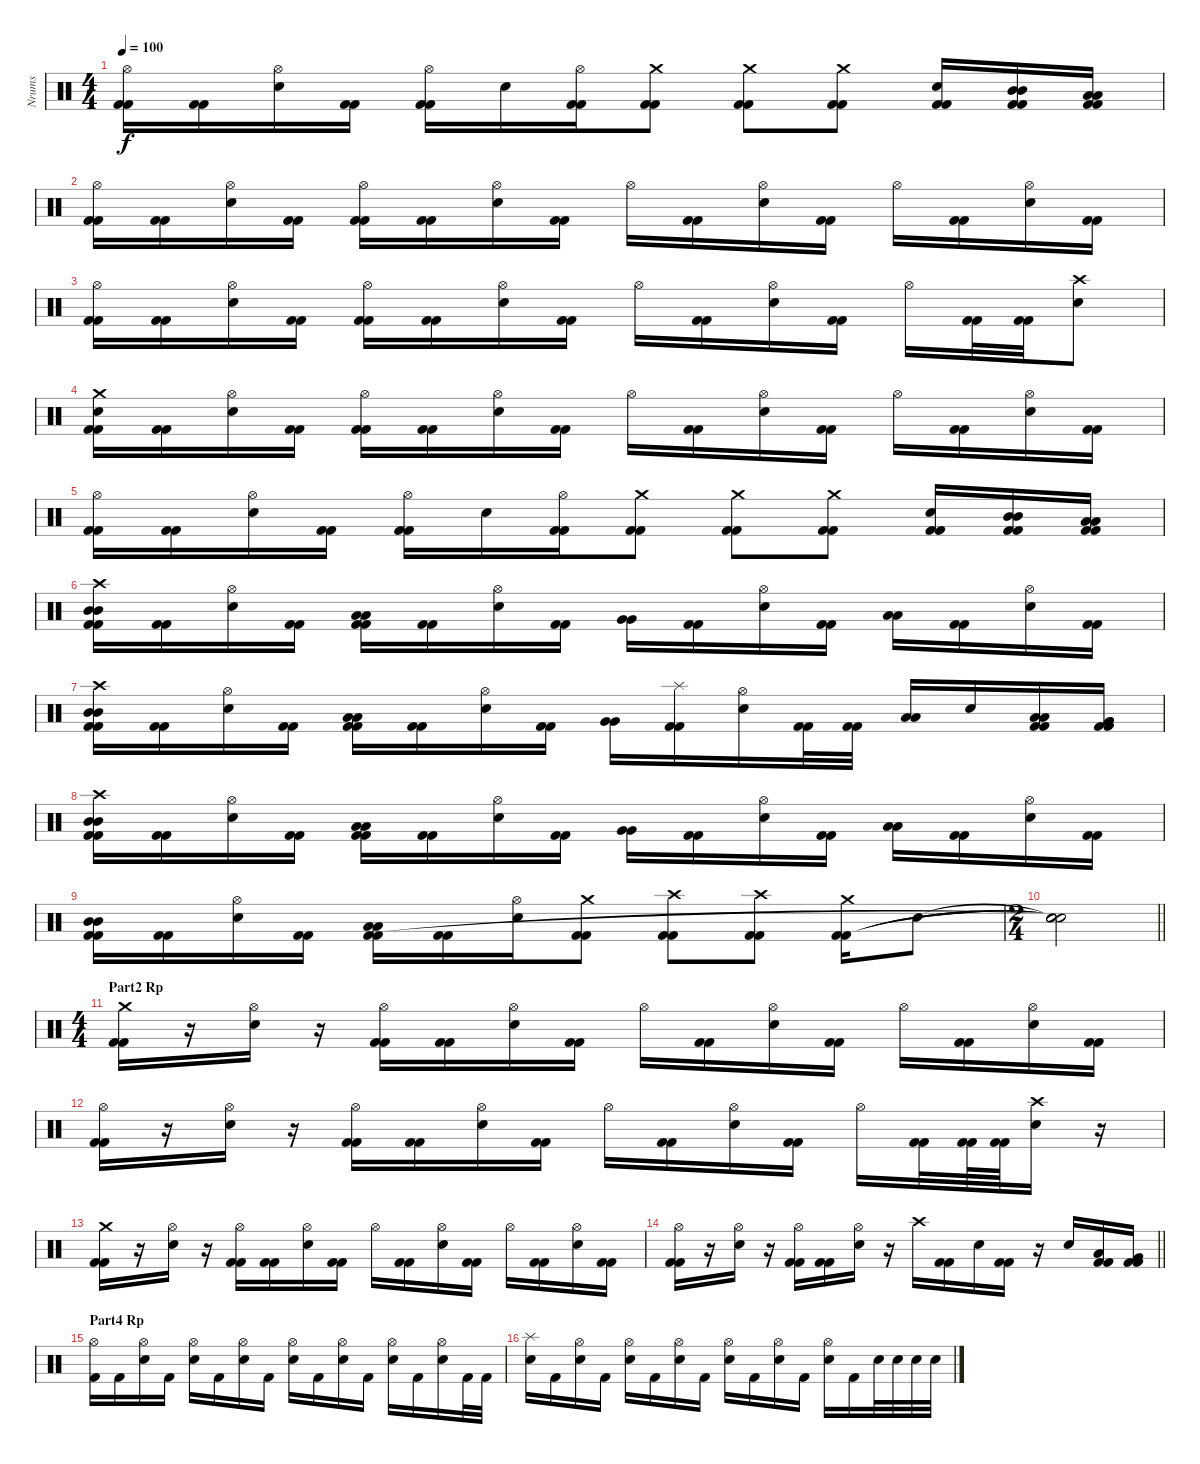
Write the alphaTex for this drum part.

\track ("Nrums" "Nrums") {instrument percussion}
\staff {score}
\articulation defaults
\ts (4 4)
\tempo 100
\clef neutral
\ks c
("Hi-Hat (open)" "Kick (hit) 2" "Kick (hit) 2").16{dy f} ("Kick (hit) 2" "Kick (hit) 2").16 ("Hi-Hat (open)" "Electric Snare (hit)").16 ("Kick (hit) 2" "Kick (hit) 2").16 ("Hi-Hat (open)" "Kick (hit) 2" "Kick (hit) 2").16 "Electric Snare (hit)".16 ("Hi-Hat (open)" "Kick (hit) 2" "Kick (hit) 2").16 ("Crash medium (hit)" "Kick (hit) 2" "Kick (hit) 2").8 ("Crash medium (hit)" "Kick (hit) 2" "Kick (hit) 2").8 ("Crash medium (hit)" "Kick (hit) 2" "Kick (hit) 2").8 ("Electric Snare (hit)" "Kick (hit) 2" "Kick (hit) 2").16 ("Mid Tom (hit)" "Mid Tom (hit)" "Kick (hit) 2" "Kick (hit) 2").16 ("Low Tom (hit)" "Low Tom (hit)" "Kick (hit) 2" "Kick (hit) 2").16 |
("Hi-Hat (open)" "Kick (hit) 2" "Kick (hit) 2").16 ("Kick (hit) 2" "Kick (hit) 2").16 ("Hi-Hat (open)" "Electric Snare (hit)").16 ("Kick (hit) 2" "Kick (hit) 2").16 ("Hi-Hat (open)" "Kick (hit) 2" "Kick (hit) 2").16 ("Kick (hit) 2" "Kick (hit) 2").16 ("Hi-Hat (open)" "Electric Snare (hit)").16 ("Kick (hit) 2" "Kick (hit) 2").16 "Hi-Hat (open)".16 ("Kick (hit) 2" "Kick (hit) 2").16 ("Hi-Hat (open)" "Electric Snare (hit)").16 ("Kick (hit) 2" "Kick (hit) 2").16 "Hi-Hat (open)".16 ("Kick (hit) 2" "Kick (hit) 2").16 ("Hi-Hat (open)" "Electric Snare (hit)").16 ("Kick (hit) 2" "Kick (hit) 2").16 |
("Hi-Hat (open)" "Kick (hit) 2" "Kick (hit) 2").16 ("Kick (hit) 2" "Kick (hit) 2").16 ("Hi-Hat (open)" "Electric Snare (hit)").16 ("Kick (hit) 2" "Kick (hit) 2").16 ("Hi-Hat (open)" "Kick (hit) 2" "Kick (hit) 2").16 ("Kick (hit) 2" "Kick (hit) 2").16 ("Hi-Hat (open)" "Electric Snare (hit)").16 ("Kick (hit) 2" "Kick (hit) 2").16 "Hi-Hat (open)".16 ("Kick (hit) 2" "Kick (hit) 2").16 ("Hi-Hat (open)" "Electric Snare (hit)").16 ("Kick (hit) 2" "Kick (hit) 2").16 "Hi-Hat (open)".16 ("Kick (hit) 2" "Kick (hit) 2").32 ("Kick (hit) 2" "Kick (hit) 2").32 ("Crash high (hit)" "Electric Snare (hit)").8 |
("Crash medium (hit)" "Electric Snare (hit)" "Kick (hit) 2" "Kick (hit) 2").16 ("Kick (hit) 2" "Kick (hit) 2").16 ("Hi-Hat (open)" "Electric Snare (hit)").16 ("Kick (hit) 2" "Kick (hit) 2").16 ("Hi-Hat (open)" "Kick (hit) 2" "Kick (hit) 2").16 ("Kick (hit) 2" "Kick (hit) 2").16 ("Hi-Hat (open)" "Electric Snare (hit)").16 ("Kick (hit) 2" "Kick (hit) 2").16 "Hi-Hat (open)".16 ("Kick (hit) 2" "Kick (hit) 2").16 ("Hi-Hat (open)" "Electric Snare (hit)").16 ("Kick (hit) 2" "Kick (hit) 2").16 "Hi-Hat (open)".16 ("Kick (hit) 2" "Kick (hit) 2").16 ("Hi-Hat (open)" "Electric Snare (hit)").16 ("Kick (hit) 2" "Kick (hit) 2").16 |
("Hi-Hat (open)" "Kick (hit) 2" "Kick (hit) 2").16 ("Kick (hit) 2" "Kick (hit) 2").16 ("Hi-Hat (open)" "Electric Snare (hit)").16 ("Kick (hit) 2" "Kick (hit) 2").16 ("Hi-Hat (open)" "Kick (hit) 2" "Kick (hit) 2").16 "Electric Snare (hit)".16 ("Hi-Hat (open)" "Kick (hit) 2" "Kick (hit) 2").16 ("Crash medium (hit)" "Kick (hit) 2" "Kick (hit) 2").8 ("Crash medium (hit)" "Kick (hit) 2" "Kick (hit) 2").8 ("Crash medium (hit)" "Kick (hit) 2" "Kick (hit) 2").8 ("Electric Snare (hit)" "Kick (hit) 2" "Kick (hit) 2").16 ("Mid Tom (hit)" "Mid Tom (hit)" "Kick (hit) 2" "Kick (hit) 2").16 ("Low Tom (hit)" "Low Tom (hit)" "Kick (hit) 2" "Kick (hit) 2").16 |
("Crash high (hit)" "Mid Tom (hit)" "Mid Tom (hit)" "Kick (hit) 2" "Kick (hit) 2").16 ("Kick (hit) 2" "Kick (hit) 2").16 ("Hi-Hat (open)" "Electric Snare (hit)").16 ("Kick (hit) 2" "Kick (hit) 2").16 ("Low Tom (hit)" "Low Tom (hit)" "Kick (hit) 2" "Kick (hit) 2").16 ("Kick (hit) 2" "Kick (hit) 2").16 ("Hi-Hat (open)" "Electric Snare (hit)").16 ("Kick (hit) 2" "Kick (hit) 2").16 ("Very Low Tom (hit)" "Very Low Tom (hit)").16 ("Kick (hit) 2" "Kick (hit) 2").16 ("Hi-Hat (open)" "Electric Snare (hit)").16 ("Kick (hit) 2" "Kick (hit) 2").16 ("Low Floor Tom (hit)" "Low Floor Tom (hit)").16 ("Kick (hit) 2" "Kick (hit) 2").16 ("Hi-Hat (open)" "Electric Snare (hit)").16 ("Kick (hit) 2" "Kick (hit) 2").16 |
("Crash high (hit)" "Mid Tom (hit)" "Mid Tom (hit)" "Kick (hit) 2" "Kick (hit) 2").16 ("Kick (hit) 2" "Kick (hit) 2").16 ("Hi-Hat (open)" "Electric Snare (hit)").16 ("Kick (hit) 2" "Kick (hit) 2").16 ("Low Tom (hit)" "Low Tom (hit)" "Kick (hit) 2" "Kick (hit) 2").16 ("Kick (hit) 2" "Kick (hit) 2").16 ("Hi-Hat (open)" "Electric Snare (hit)").16 ("Kick (hit) 2" "Kick (hit) 2").16 ("Very Low Tom (hit)" "Very Low Tom (hit)").16 ("Splash (hit)" "Kick (hit) 2" "Kick (hit) 2").16 ("Hi-Hat (open)" "Electric Snare (hit)").16 ("Kick (hit) 2" "Kick (hit) 2").32 ("Kick (hit) 2" "Kick (hit) 2").32 ("Low Floor Tom (hit)" "Low Floor Tom (hit)").16 "Electric Snare (hit)".16 ("Low Tom (hit)" "Low Tom (hit)" "Kick (hit) 2" "Kick (hit) 2").16 ("Very Low Tom (hit)" "Very Low Tom (hit)" "Kick (hit) 2" "Kick (hit) 2").16 |
("Crash high (hit)" "Mid Tom (hit)" "Mid Tom (hit)" "Kick (hit) 2" "Kick (hit) 2").16 ("Kick (hit) 2" "Kick (hit) 2").16 ("Hi-Hat (open)" "Electric Snare (hit)").16 ("Kick (hit) 2" "Kick (hit) 2").16 ("Low Tom (hit)" "Low Tom (hit)" "Kick (hit) 2" "Kick (hit) 2").16 ("Kick (hit) 2" "Kick (hit) 2").16 ("Hi-Hat (open)" "Electric Snare (hit)").16 ("Kick (hit) 2" "Kick (hit) 2").16 ("Very Low Tom (hit)" "Very Low Tom (hit)").16 ("Kick (hit) 2" "Kick (hit) 2").16 ("Hi-Hat (open)" "Electric Snare (hit)").16 ("Kick (hit) 2" "Kick (hit) 2").16 ("Low Floor Tom (hit)" "Low Floor Tom (hit)").16 ("Kick (hit) 2" "Kick (hit) 2").16 ("Hi-Hat (open)" "Electric Snare (hit)").16 ("Kick (hit) 2" "Kick (hit) 2").16 |
("Mid Tom (hit)" "Mid Tom (hit)" "Kick (hit) 2" "Kick (hit) 2").16 ("Kick (hit) 2" "Kick (hit) 2").16 ("Hi-Hat (open)" "Electric Snare (hit)").16 ("Kick (hit) 2" "Kick (hit) 2").16 ("Low Tom (hit)" "Low Tom (hit)" "Kick (hit) 2" "Kick (hit) 2").16 ("Kick (hit) 2" "Kick (hit) 2").16 ("Hi-Hat (open)" "Electric Snare (hit)").16 ("Crash medium (hit)" "Kick (hit) 2" "Kick (hit) 2").8 ("Crash high (hit)" "Kick (hit) 2" "Kick (hit) 2").8 ("Crash high (hit)" "Kick (hit) 2" "Kick (hit) 2").8 ("Crash medium (hit)" "Kick (hit) 2" "Kick (hit) 2").16 "Electric Snare (hit)".8 |
\ts (2 4)
\barLineRight lightlight
("Snare (hit)"{t} "Snare (hit)"{t} "Snare (hit)"{t} "Snare (hit)"{t}).2 |
\ts (4 4)
\section ("" "Part2 Rp")
("Crash medium (hit)" "Kick (hit) 2" "Kick (hit) 2").16 r.16 ("Hi-Hat (open)" "Electric Snare (hit)").16 r.16 ("Hi-Hat (open)" "Kick (hit) 2" "Kick (hit) 2").16 ("Kick (hit) 2" "Kick (hit) 2").16 ("Hi-Hat (open)" "Electric Snare (hit)").16 ("Kick (hit) 2" "Kick (hit) 2").16 "Hi-Hat (open)".16 ("Kick (hit) 2" "Kick (hit) 2").16 ("Hi-Hat (open)" "Electric Snare (hit)").16 ("Kick (hit) 2" "Kick (hit) 2").16 "Hi-Hat (open)".16 ("Kick (hit) 2" "Kick (hit) 2").16 ("Hi-Hat (open)" "Electric Snare (hit)").16 ("Kick (hit) 2" "Kick (hit) 2").16 |
("Hi-Hat (open)" "Kick (hit) 2" "Kick (hit) 2").16 r.16 ("Hi-Hat (open)" "Electric Snare (hit)").16 r.16 ("Hi-Hat (open)" "Kick (hit) 2" "Kick (hit) 2").16 ("Kick (hit) 2" "Kick (hit) 2").16 ("Hi-Hat (open)" "Electric Snare (hit)").16 ("Kick (hit) 2" "Kick (hit) 2").16 "Hi-Hat (open)".16 ("Kick (hit) 2" "Kick (hit) 2").16 ("Hi-Hat (open)" "Electric Snare (hit)").16 ("Kick (hit) 2" "Kick (hit) 2").16 "Hi-Hat (open)".16 ("Kick (hit) 2" "Kick (hit) 2").32 ("Kick (hit) 2" "Kick (hit) 2").64 ("Kick (hit) 2" "Kick (hit) 2").64 ("Crash high (hit)" "Electric Snare (hit)").16 r.16 |
("Crash medium (hit)" "Kick (hit) 2" "Kick (hit) 2").16 r.16 ("Hi-Hat (open)" "Electric Snare (hit)").16 r.16 ("Hi-Hat (open)" "Kick (hit) 2" "Kick (hit) 2").16 ("Kick (hit) 2" "Kick (hit) 2").16 ("Hi-Hat (open)" "Electric Snare (hit)").16 ("Kick (hit) 2" "Kick (hit) 2").16 "Hi-Hat (open)".16 ("Kick (hit) 2" "Kick (hit) 2").16 ("Hi-Hat (open)" "Electric Snare (hit)").16 ("Kick (hit) 2" "Kick (hit) 2").16 "Hi-Hat (open)".16 ("Kick (hit) 2" "Kick (hit) 2").16 ("Hi-Hat (open)" "Electric Snare (hit)").16 ("Kick (hit) 2" "Kick (hit) 2").16 |
\barLineRight lightlight
("Hi-Hat (open)" "Kick (hit) 2" "Kick (hit) 2").16 r.16 ("Hi-Hat (open)" "Electric Snare (hit)").16 r.16 ("Hi-Hat (open)" "Kick (hit) 2" "Kick (hit) 2").16 ("Kick (hit) 2" "Kick (hit) 2").16 ("Hi-Hat (open)" "Electric Snare (hit)").16 r.16 "Crash high (hit)".16 ("Kick (hit) 2" "Kick (hit) 2").16 "Electric Snare (hit)".16 ("Kick (hit) 2" "Kick (hit) 2").16 r.16 "Electric Snare (hit)".16 ("Low Tom (hit)" "Kick (hit) 2" "Kick (hit) 2").16 ("Very Low Tom (hit)" "Kick (hit) 2" "Kick (hit) 2").16 |
\section ("" "Part4 Rp")
("Hi-Hat (open)" "Kick (hit) 2").16 "Kick (hit) 2".16 ("Hi-Hat (open)" "Electric Snare (hit)").16 "Kick (hit) 2".16 ("Hi-Hat (open)" "Electric Snare (hit)").16 "Kick (hit) 2".16 ("Hi-Hat (open)" "Electric Snare (hit)").16 "Kick (hit) 2".16 ("Hi-Hat (open)" "Electric Snare (hit)").16 "Kick (hit) 2".16 ("Hi-Hat (open)" "Electric Snare (hit)").16 "Kick (hit) 2".16 ("Hi-Hat (open)" "Electric Snare (hit)").16 "Kick (hit) 2".16 ("Hi-Hat (open)" "Electric Snare (hit)").16 "Kick (hit) 2".32 "Kick (hit) 2".32 |
("Splash (hit)" "Electric Snare (hit)").16 "Kick (hit) 2".16 ("Hi-Hat (open)" "Electric Snare (hit)").16 "Kick (hit) 2".16 ("Hi-Hat (open)" "Electric Snare (hit)").16 "Kick (hit) 2".16 ("Hi-Hat (open)" "Electric Snare (hit)").16 "Kick (hit) 2".16 ("Hi-Hat (open)" "Electric Snare (hit)").16 "Kick (hit) 2".16 ("Hi-Hat (open)" "Electric Snare (hit)").16 "Kick (hit) 2".16 ("Hi-Hat (open)" "Electric Snare (hit)").16 "Kick (hit) 2".16 "Electric Snare (hit)".32 "Electric Snare (hit)".32 "Electric Snare (hit)".32 "Electric Snare (hit)".32
